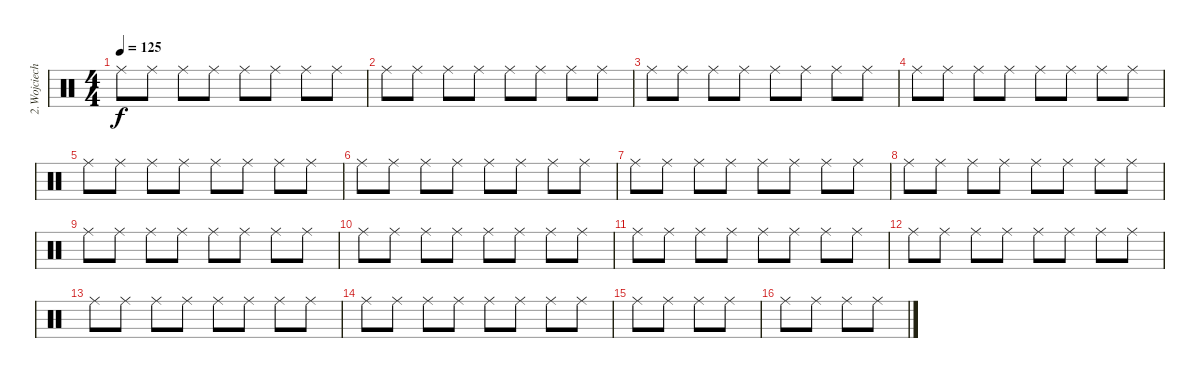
\track ("2.Wojciech Kuderski (\"Lala\")" "2.Wojciech") {instrument percussion}
\staff {score}
\articulation defaults
\ts (4 4)
\tempo 125
\clef neutral
\ks c "Ride (middle)".8{dy f} "Ride (middle)".8 "Ride (middle)".8 "Ride (middle)".8 "Ride (middle)".8 "Ride (middle)".8 "Ride (middle)".8 "Ride (middle)".8
|
"Ride (middle)".8 "Ride (middle)".8 "Ride (middle)".8 "Ride (middle)".8 "Ride (middle)".8 "Ride (middle)".8 "Ride (middle)".8 "Ride (middle)".8 |
"Ride (middle)".8 "Ride (middle)".8 "Ride (middle)".8 "Ride (middle)".8 "Ride (middle)".8 "Ride (middle)".8 "Ride (middle)".8 "Ride (middle)".8 |
"Ride (middle)".8 "Ride (middle)".8 "Ride (middle)".8 "Ride (middle)".8 "Ride (middle)".8 "Ride (middle)".8 "Ride (middle)".8 "Ride (middle)".8 |
"Ride (middle)".8 "Ride (middle)".8 "Ride (middle)".8 "Ride (middle)".8 "Ride (middle)".8 "Ride (middle)".8 "Ride (middle)".8 "Ride (middle)".8 |
"Ride (middle)".8 "Ride (middle)".8 "Ride (middle)".8 "Ride (middle)".8 "Ride (middle)".8 "Ride (middle)".8 "Ride (middle)".8 "Ride (middle)".8 |
"Ride (middle)".8 "Ride (middle)".8 "Ride (middle)".8 "Ride (middle)".8 "Ride (middle)".8 "Ride (middle)".8 "Ride (middle)".8 "Ride (middle)".8 |
"Ride (middle)".8 "Ride (middle)".8 "Ride (middle)".8 "Ride (middle)".8 "Ride (middle)".8 "Ride (middle)".8 "Ride (middle)".8 "Ride (middle)".8 |
"Ride (middle)".8 "Ride (middle)".8 "Ride (middle)".8 "Ride (middle)".8 "Ride (middle)".8 "Ride (middle)".8 "Ride (middle)".8 "Ride (middle)".8 |
"Ride (middle)".8 "Ride (middle)".8 "Ride (middle)".8 "Ride (middle)".8 "Ride (middle)".8 "Ride (middle)".8 "Ride (middle)".8 "Ride (middle)".8 |
"Ride (middle)".8 "Ride (middle)".8 "Ride (middle)".8 "Ride (middle)".8 "Ride (middle)".8 "Ride (middle)".8 "Ride (middle)".8 "Ride (middle)".8 |
"Ride (middle)".8 "Ride (middle)".8 "Ride (middle)".8 "Ride (middle)".8 "Ride (middle)".8 "Ride (middle)".8 "Ride (middle)".8 "Ride (middle)".8 |
"Ride (middle)".8 "Ride (middle)".8 "Ride (middle)".8 "Ride (middle)".8 "Ride (middle)".8 "Ride (middle)".8 "Ride (middle)".8 "Ride (middle)".8 |
"Ride (middle)".8 "Ride (middle)".8 "Ride (middle)".8 "Ride (middle)".8 "Ride (middle)".8 "Ride (middle)".8 "Ride (middle)".8 "Ride (middle)".8 |
"Ride (middle)".8 "Ride (middle)".8 "Ride (middle)".8 "Ride (middle)".8 |
"Ride (middle)".8 "Ride (middle)".8 "Ride (middle)".8 "Ride (middle)".8
